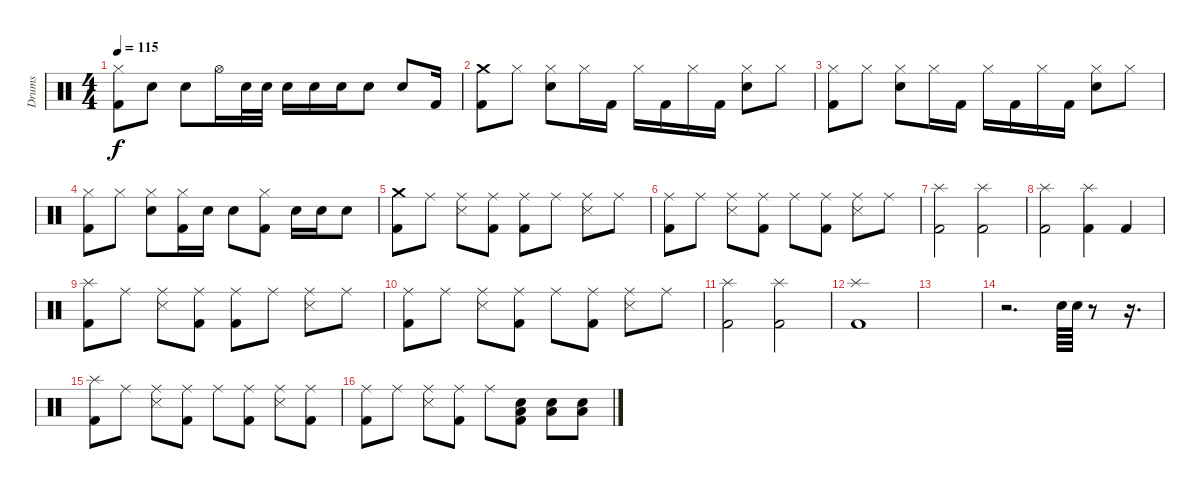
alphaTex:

\track ("Drums" "Drums") {instrument percussion}
\staff {score}
\articulation defaults
\ts (4 4)
\tempo 115
\clef neutral
\ks c
("Hi-Hat (closed)" "Kick (hit) 2").8{dy f} "Snare (hit) 2".8 "Snare (hit) 2".8 "Hi-Hat (open)".16 "Snare (hit) 2".32 "Snare (hit) 2".32 "Snare (hit) 2".16 "Snare (hit) 2".16 "Snare (hit) 2".16 "Snare (hit) 2".8 "Snare (hit) 2".8 "Kick (hit) 2".16 |
("Crash medium (hit)" "Kick (hit) 2").8 "Hi-Hat (closed)".8 ("Hi-Hat (closed)" "Snare (hit) 2").8 "Hi-Hat (closed)".16 "Kick (hit) 2".16 "Hi-Hat (closed)".16 "Kick (hit) 2".16 "Hi-Hat (closed)".16 "Kick (hit) 2".16 ("Hi-Hat (closed)" "Snare (hit) 2").8 "Hi-Hat (closed)".8 |
("Hi-Hat (closed)" "Kick (hit) 2").8 "Hi-Hat (closed)".8 ("Hi-Hat (closed)" "Snare (hit) 2").8 "Hi-Hat (closed)".16 "Kick (hit) 2".16 "Hi-Hat (closed)".16 "Kick (hit) 2".16 "Hi-Hat (closed)".16 "Kick (hit) 2".16 ("Hi-Hat (closed)" "Snare (hit) 2").8 "Hi-Hat (closed)".8 |
("Hi-Hat (closed)" "Kick (hit) 2").8 "Hi-Hat (closed)".8 ("Hi-Hat (closed)" "Snare (hit) 2").8 ("Hi-Hat (closed)" "Kick (hit) 2").16 "Snare (hit) 2".16 "Snare (hit) 2".8 ("Hi-Hat (closed)" "Kick (hit) 2").8 "Snare (hit) 2".16 "Snare (hit) 2".16 "Snare (hit) 2".8 |
("Crash medium (hit)" "Kick (hit) 2").8 "Ride (middle)".8 ("Ride (middle)" "Snare (side stick) 3").8 ("Ride (middle)" "Kick (hit) 2").8 ("Ride (middle)" "Kick (hit) 2").8 "Ride (middle)".8 ("Ride (middle)" "Snare (side stick) 3").8 "Ride (middle)".8 |
("Ride (middle)" "Kick (hit) 2").8 "Ride (middle)".8 ("Ride (middle)" "Snare (side stick) 3").8 ("Ride (middle)" "Kick (hit) 2").8 "Ride (middle)".8 ("Ride (middle)" "Kick (hit) 2").8 ("Ride (middle)" "Snare (side stick) 3").8 "Ride (middle)".8 |
("Splash (hit)" "Kick (hit) 2").2 ("Splash (hit)" "Kick (hit) 2").2 |
("Splash (hit)" "Kick (hit) 2").2 ("Splash (hit)" "Kick (hit) 2").4 "Kick (hit) 2".4 |
("Splash (hit)" "Kick (hit) 2").8 "Ride (middle)".8 ("Ride (middle)" "Snare (side stick) 3").8 ("Ride (middle)" "Kick (hit) 2").8 ("Ride (middle)" "Kick (hit) 2").8 "Ride (middle)".8 ("Ride (middle)" "Snare (side stick) 3").8 "Ride (middle)".8 |
("Ride (middle)" "Kick (hit) 2").8 "Ride (middle)".8 ("Ride (middle)" "Snare (side stick) 3").8 ("Ride (middle)" "Kick (hit) 2").8 "Ride (middle)".8 ("Ride (middle)" "Kick (hit) 2").8 ("Ride (middle)" "Snare (side stick) 3").8 "Ride (middle)".8 |
("Splash (hit)" "Kick (hit) 2").2 ("Splash (hit)" "Kick (hit) 2").2 |
("Splash (hit)" "Kick (hit) 2").1 |
|
r.2{d} "Snare (hit) 2".64 "Snare (hit) 2".64 r.8 r.16{d} |
("Splash (hit)" "Kick (hit) 2").8 "Ride (middle)".8 ("Ride (middle)" "Snare (side stick) 3").8 ("Ride (middle)" "Kick (hit) 2").8 "Ride (middle)".8 ("Ride (middle)" "Kick (hit) 2").8 ("Ride (middle)" "Snare (side stick) 3").8 ("Ride (middle)" "Kick (hit) 2").8 |
("Ride (middle)" "Kick (hit) 2").8 "Ride (middle)".8 ("Ride (middle)" "Snare (side stick) 3").8 ("Ride (middle)" "Kick (hit) 2").8 "Ride (middle)".8 ("Low Tom (hit)" "Snare (hit) 2" "Kick (hit) 2").8 ("Low Tom (hit)" "Snare (hit) 2").8 ("Low Tom (hit)" "Snare (hit) 2").8
